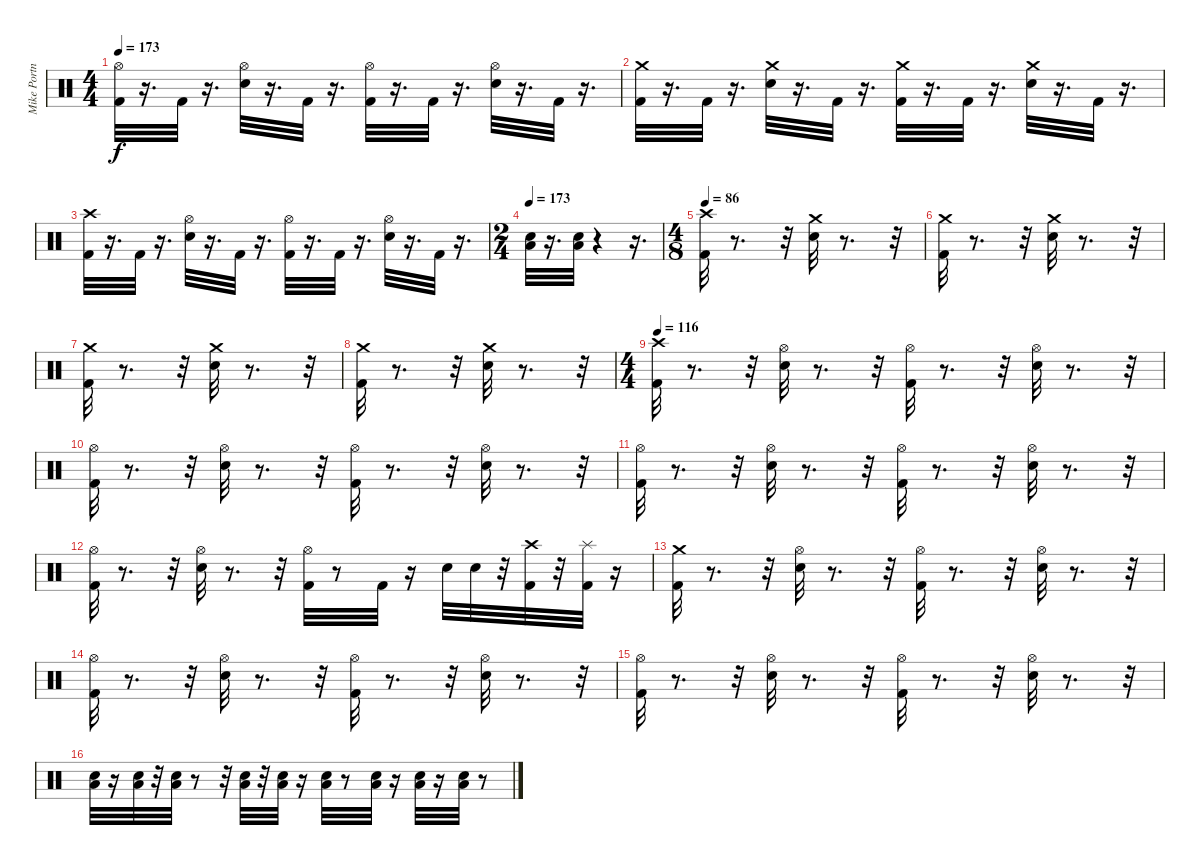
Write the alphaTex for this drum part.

\track ("Mike Portnoy" "Mike Portn") {instrument percussion}
\staff {score}
\articulation defaults
\ts (4 4)
\tempo 173
\clef neutral
\ks c
("Hi-Hat (open)" "Kick (hit) 2").32{dy f} r.16{d} "Kick (hit) 2".32 r.16{d} ("Snare (hit) 2" "Hi-Hat (open)").32 r.16{d} "Kick (hit) 2".32 r.16{d} ("Kick (hit) 2" "Hi-Hat (open)").32 r.16{d} "Kick (hit) 2".32 r.16{d} ("Snare (hit) 2" "Hi-Hat (open)").32 r.16{d} "Kick (hit) 2".32 r.16{d} |
("Crash medium (hit)" "Kick (hit) 2").32 r.16{d} "Kick (hit) 2".32 r.16{d} ("Crash medium (hit)" "Snare (hit) 2").32 r.16{d} "Kick (hit) 2".32 r.16{d} ("Crash medium (hit)" "Kick (hit) 2").32 r.16{d} "Kick (hit) 2".32 r.16{d} ("Crash medium (hit)" "Snare (hit) 2").32 r.16{d} "Kick (hit) 2".32 r.16{d} |
("Kick (hit) 2" "Crash high (hit)").32 r.16{d} "Kick (hit) 2".32 r.16{d} ("Hi-Hat (open)" "Snare (hit) 2").32 r.16{d} "Kick (hit) 2".32 r.16{d} ("Hi-Hat (open)" "Kick (hit) 2").32 r.16{d} "Kick (hit) 2".32 r.16{d} ("Hi-Hat (open)" "Snare (hit) 2").32 r.16{d} "Kick (hit) 2".32 r.16{d} |
\ts (2 4)
\tempo 173
("Low Floor Tom (hit)" "Snare (hit) 2").32 r.16{d} ("Low Floor Tom (hit)" "Snare (hit) 2").32 r.4 r.16{d} |
\ts (4 8)
\tempo 86
("Kick (hit) 2" "Crash high (hit)").32 r.8{d} r.32 ("Crash medium (hit)" "Snare (hit) 2").32 r.8{d} r.32 |
("Crash medium (hit)" "Kick (hit) 2").32 r.8{d} r.32 ("Crash medium (hit)" "Snare (hit) 2").32 r.8{d} r.32 |
("Crash medium (hit)" "Kick (hit) 2").32 r.8{d} r.32 ("Crash medium (hit)" "Snare (hit) 2").32 r.8{d} r.32 |
("Crash medium (hit)" "Kick (hit) 2").32 r.8{d} r.32 ("Crash medium (hit)" "Snare (hit) 2").32 r.8{d} r.32 |
\ts (4 4)
\tempo 116
("Crash high (hit)" "Kick (hit) 2").32 r.8{d} r.32 ("Hi-Hat (open)" "Snare (hit) 2").32 r.8{d} r.32 ("Hi-Hat (open)" "Kick (hit) 2").32 r.8{d} r.32 ("Hi-Hat (open)" "Snare (hit) 2").32 r.8{d} r.32 |
("Hi-Hat (open)" "Kick (hit) 2").32 r.8{d} r.32 ("Hi-Hat (open)" "Snare (hit) 2").32 r.8{d} r.32 ("Hi-Hat (open)" "Kick (hit) 2").32 r.8{d} r.32 ("Hi-Hat (open)" "Snare (hit) 2").32 r.8{d} r.32 |
("Hi-Hat (open)" "Kick (hit) 2").32 r.8{d} r.32 ("Hi-Hat (open)" "Snare (hit) 2").32 r.8{d} r.32 ("Hi-Hat (open)" "Kick (hit) 2").32 r.8{d} r.32 ("Hi-Hat (open)" "Snare (hit) 2").32 r.8{d} r.32 |
("Hi-Hat (open)" "Kick (hit) 2").32 r.8{d} r.32 ("Hi-Hat (open)" "Snare (hit) 2").32 r.8{d} r.32 ("Hi-Hat (open)" "Kick (hit) 2").32 r.8 "Kick (hit) 2".32 r.16 "Snare (hit) 2".32 "Snare (hit) 2".32 r.32 ("Crash high (hit)" "Kick (hit) 2").32 r.32 ("Splash (hit)" "Kick (hit) 2").32 r.16 |
("Crash medium (hit)" "Kick (hit) 2").32 r.8{d} r.32 ("Hi-Hat (open)" "Snare (hit) 2").32 r.8{d} r.32 ("Hi-Hat (open)" "Kick (hit) 2").32 r.8{d} r.32 ("Hi-Hat (open)" "Snare (hit) 2").32 r.8{d} r.32 |
("Hi-Hat (open)" "Kick (hit) 2").32 r.8{d} r.32 ("Hi-Hat (open)" "Snare (hit) 2").32 r.8{d} r.32 ("Hi-Hat (open)" "Kick (hit) 2").32 r.8{d} r.32 ("Hi-Hat (open)" "Snare (hit) 2").32 r.8{d} r.32 |
("Hi-Hat (open)" "Kick (hit) 2").32 r.8{d} r.32 ("Hi-Hat (open)" "Snare (hit) 2").32 r.8{d} r.32 ("Hi-Hat (open)" "Kick (hit) 2").32 r.8{d} r.32 ("Hi-Hat (open)" "Snare (hit) 2").32 r.8{d} r.32 |
("Low Floor Tom (hit)" "Snare (hit) 2").32 r.16 ("Low Floor Tom (hit)" "Snare (hit) 2").32 r.32 ("Low Floor Tom (hit)" "Snare (hit) 2").32 r.8 r.32 ("Low Floor Tom (hit)" "Snare (hit) 2").32 r.32 ("Snare (hit) 2" "Low Floor Tom (hit)").32 r.16 ("Low Floor Tom (hit)" "Snare (hit) 2").32 r.8 ("Low Floor Tom (hit)" "Snare (hit) 2").32 r.16 ("Low Floor Tom (hit)" "Snare (hit) 2").32 r.16 ("Low Floor Tom (hit)" "Snare (hit) 2").32 r.8
